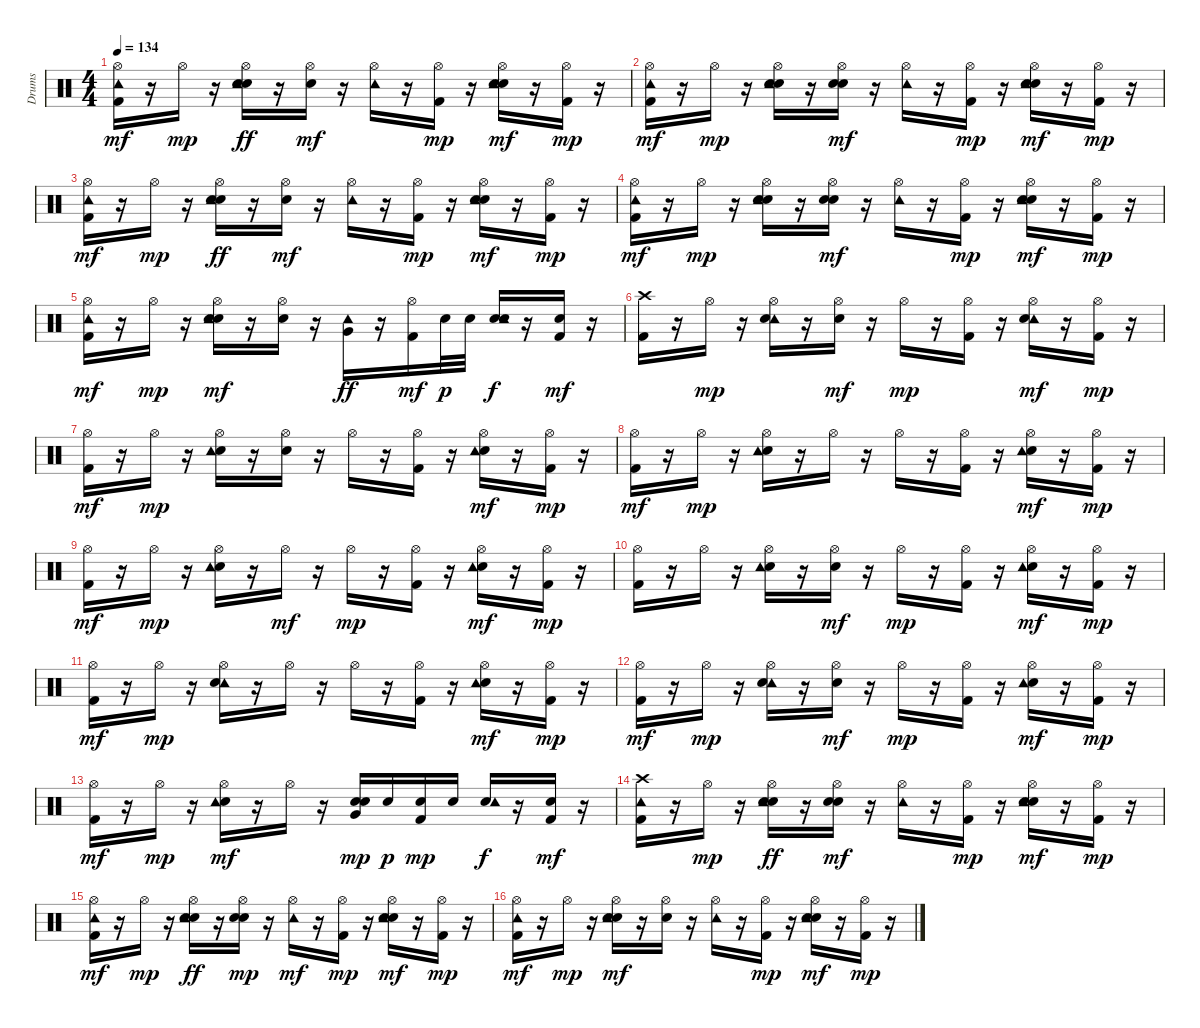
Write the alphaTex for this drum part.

\track ("Drums" "Drums") {instrument percussion}
\staff {score}
\articulation defaults
\ts (4 4)
\tempo 134
\clef neutral
\ks c
("Kick (hit) 2" "Hi-Hat (open)" "Tambourine (hit)").16{dy mf} r.16 "Hi-Hat (open)".16{dy mp} r.16 ("Hi-Hat (open)" "Snare (hit) 2" "Hand Clap (hit)" "Tambourine (hit)").16{dy ff} r.16 ("Hi-Hat (open)" "Hand Clap (hit)").16{dy mf} r.16 ("Hi-Hat (open)" "Tambourine (hit)").16 r.16 ("Kick (hit) 2" "Hi-Hat (open)").16{dy mp} r.16 ("Hi-Hat (open)" "Snare (hit) 2" "Hand Clap (hit)" "Tambourine (hit)").16{dy mf} r.16 ("Kick (hit) 2" "Hi-Hat (open)").16{dy mp} r.16 |
("Kick (hit) 2" "Hi-Hat (open)" "Tambourine (hit)").16{dy mf} r.16 "Hi-Hat (open)".16{dy mp} r.16 ("Hand Clap (hit)" "Hi-Hat (open)" "Snare (hit) 2" "Tambourine (hit)").16 r.16 ("Hi-Hat (open)" "Snare (hit) 2" "Hand Clap (hit)").16{dy mf} r.16 ("Hi-Hat (open)" "Tambourine (hit)").16 r.16 ("Kick (hit) 2" "Hi-Hat (open)").16{dy mp} r.16 ("Hi-Hat (open)" "Snare (hit) 2" "Hand Clap (hit)" "Tambourine (hit)").16{dy mf} r.16 ("Kick (hit) 2" "Hi-Hat (open)").16{dy mp} r.16 |
("Kick (hit) 2" "Hi-Hat (open)" "Tambourine (hit)").16{dy mf} r.16 "Hi-Hat (open)".16{dy mp} r.16 ("Hi-Hat (open)" "Snare (hit) 2" "Hand Clap (hit)" "Tambourine (hit)").16{dy ff} r.16 ("Hi-Hat (open)" "Hand Clap (hit)").16{dy mf} r.16 ("Hi-Hat (open)" "Tambourine (hit)").16 r.16 ("Kick (hit) 2" "Hi-Hat (open)").16{dy mp} r.16 ("Hi-Hat (open)" "Snare (hit) 2" "Hand Clap (hit)" "Tambourine (hit)").16{dy mf} r.16 ("Kick (hit) 2" "Hi-Hat (open)").16{dy mp} r.16 |
("Kick (hit) 2" "Hi-Hat (open)" "Tambourine (hit)").16{dy mf} r.16 "Hi-Hat (open)".16{dy mp} r.16 ("Hand Clap (hit)" "Tambourine (hit)" "Hi-Hat (open)" "Snare (hit) 2").16 r.16 ("Hi-Hat (open)" "Snare (hit) 2" "Hand Clap (hit)").16{dy mf} r.16 ("Hi-Hat (open)" "Tambourine (hit)").16 r.16 ("Kick (hit) 2" "Hi-Hat (open)").16{dy mp} r.16 ("Hi-Hat (open)" "Snare (hit) 2" "Hand Clap (hit)" "Tambourine (hit)").16{dy mf} r.16 ("Kick (hit) 2" "Hi-Hat (open)").16{dy mp} r.16 |
("Kick (hit) 2" "Hi-Hat (open)" "Tambourine (hit)").16{dy mf} r.16 "Hi-Hat (open)".16{dy mp} r.16 ("Snare (hit) 2" "Hand Clap (hit)" "Tambourine (hit)" "Hi-Hat (open)").16{dy mf} r.16 ("Hi-Hat (open)" "Hand Clap (hit)").16 r.16 ("Tambourine (hit)" "Very Low Tom (hit)").16{dy ff} r.16 ("Kick (hit) 2" "Hi-Hat (open)").16{dy mf} "Snare (hit) 2".32{dy p} "Snare (hit) 2".32 ("Snare (hit) 2" "Hand Clap (hit)" "Tambourine (hit)").16{dy f} r.16 ("Kick (hit) 2" "Snare (hit) 2").16{dy mf} r.16 |
("Kick (hit) 2" "Crash high (hit)").16 r.16 "Hi-Hat (open)".16{dy mp} r.16 ("Tambourine (hit)" "Hi-Hat (open)" "Snare (hit) 2").16 r.16 ("Hi-Hat (open)" "Snare (hit) 2").16{dy mf} r.16 "Hi-Hat (open)".16{dy mp} r.16 ("Kick (hit) 2" "Hi-Hat (open)").16 r.16 ("Tambourine (hit)" "Hi-Hat (open)" "Snare (hit) 2").16{dy mf} r.16 ("Kick (hit) 2" "Hi-Hat (open)").16{dy mp} r.16 |
("Kick (hit) 2" "Hi-Hat (open)").16{dy mf} r.16 "Hi-Hat (open)".16{dy mp} r.16 ("Hi-Hat (open)" "Snare (hit) 2" "Tambourine (hit)").16 r.16 ("Hi-Hat (open)" "Snare (hit) 2").16 r.16 "Hi-Hat (open)".16 r.16 ("Kick (hit) 2" "Hi-Hat (open)").16 r.16 ("Hi-Hat (open)" "Snare (hit) 2" "Tambourine (hit)").16{dy mf} r.16 ("Kick (hit) 2" "Hi-Hat (open)").16{dy mp} r.16 |
("Kick (hit) 2" "Hi-Hat (open)").16{dy mf} r.16 "Hi-Hat (open)".16{dy mp} r.16 ("Hi-Hat (open)" "Snare (hit) 2" "Tambourine (hit)").16 r.16 "Hi-Hat (open)".16 r.16 "Hi-Hat (open)".16 r.16 ("Kick (hit) 2" "Hi-Hat (open)").16 r.16 ("Hi-Hat (open)" "Snare (hit) 2" "Tambourine (hit)").16{dy mf} r.16 ("Kick (hit) 2" "Hi-Hat (open)").16{dy mp} r.16 |
("Kick (hit) 2" "Hi-Hat (open)").16{dy mf} r.16 "Hi-Hat (open)".16{dy mp} r.16 ("Hi-Hat (open)" "Snare (hit) 2" "Tambourine (hit)").16 r.16 "Hi-Hat (open)".16{dy mf} r.16 "Hi-Hat (open)".16{dy mp} r.16 ("Kick (hit) 2" "Hi-Hat (open)").16 r.16 ("Hi-Hat (open)" "Snare (hit) 2" "Tambourine (hit)").16{dy mf} r.16 ("Kick (hit) 2" "Hi-Hat (open)").16{dy mp} r.16 |
("Kick (hit) 2" "Hi-Hat (open)").16 r.16 "Hi-Hat (open)".16 r.16 ("Hi-Hat (open)" "Snare (hit) 2" "Tambourine (hit)").16 r.16 ("Hi-Hat (open)" "Snare (hit) 2").16{dy mf} r.16 "Hi-Hat (open)".16{dy mp} r.16 ("Kick (hit) 2" "Hi-Hat (open)").16 r.16 ("Hi-Hat (open)" "Snare (hit) 2" "Tambourine (hit)").16{dy mf} r.16 ("Kick (hit) 2" "Hi-Hat (open)").16{dy mp} r.16 |
("Kick (hit) 2" "Hi-Hat (open)").16{dy mf} r.16 "Hi-Hat (open)".16{dy mp} r.16 ("Tambourine (hit)" "Hi-Hat (open)" "Snare (hit) 2").16 r.16 "Hi-Hat (open)".16 r.16 "Hi-Hat (open)".16 r.16 ("Kick (hit) 2" "Hi-Hat (open)").16 r.16 ("Hi-Hat (open)" "Snare (hit) 2" "Tambourine (hit)").16{dy mf} r.16 ("Kick (hit) 2" "Hi-Hat (open)").16{dy mp} r.16 |
("Kick (hit) 2" "Hi-Hat (open)").16{dy mf} r.16 "Hi-Hat (open)".16{dy mp} r.16 ("Tambourine (hit)" "Hi-Hat (open)" "Snare (hit) 2").16 r.16 ("Hi-Hat (open)" "Snare (hit) 2").16{dy mf} r.16 "Hi-Hat (open)".16{dy mp} r.16 ("Kick (hit) 2" "Hi-Hat (open)").16 r.16 ("Hi-Hat (open)" "Snare (hit) 2" "Tambourine (hit)").16{dy mf} r.16 ("Kick (hit) 2" "Hi-Hat (open)").16{dy mp} r.16 |
("Kick (hit) 2" "Hi-Hat (open)").16{dy mf} r.16 "Hi-Hat (open)".16{dy mp} r.16 ("Snare (hit) 2" "Tambourine (hit)" "Hi-Hat (open)").16{dy mf} r.16 "Hi-Hat (open)".16 r.16 ("Snare (hit) 2" "Very Low Tom (hit)" "Snare (hit) 2").16{dy mp} "Snare (hit) 2".16{dy p} ("Kick (hit) 2" "Snare (hit) 2").16{dy mp} "Snare (hit) 2".16 ("Snare (hit) 2" "Tambourine (hit)").16{dy f} r.16 ("Kick (hit) 2" "Snare (hit) 2").16{dy mf} r.16 |
("Kick (hit) 2" "Tambourine (hit)" "Crash high (hit)").16 r.16 "Hi-Hat (open)".16{dy mp} r.16 ("Hi-Hat (open)" "Snare (hit) 2" "Hand Clap (hit)" "Tambourine (hit)").16{dy ff} r.16 ("Hi-Hat (open)" "Snare (hit) 2" "Hand Clap (hit)").16{dy mf} r.16 ("Hi-Hat (open)" "Tambourine (hit)").16 r.16 ("Kick (hit) 2" "Hi-Hat (open)").16{dy mp} r.16 ("Hi-Hat (open)" "Snare (hit) 2" "Hand Clap (hit)" "Tambourine (hit)").16{dy mf} r.16 ("Kick (hit) 2" "Hi-Hat (open)").16{dy mp} r.16 |
("Kick (hit) 2" "Hi-Hat (open)" "Tambourine (hit)").16{dy mf} r.16 "Hi-Hat (open)".16{dy mp} r.16 ("Hi-Hat (open)" "Snare (hit) 2" "Hand Clap (hit)" "Tambourine (hit)").16{dy ff} r.16 ("Snare (hit) 2" "Hand Clap (hit)" "Hi-Hat (open)").16{dy mp} r.16 ("Hi-Hat (open)" "Tambourine (hit)").16{dy mf} r.16 ("Kick (hit) 2" "Hi-Hat (open)").16{dy mp} r.16 ("Hi-Hat (open)" "Snare (hit) 2" "Hand Clap (hit)" "Tambourine (hit)").16{dy mf} r.16 ("Kick (hit) 2" "Hi-Hat (open)").16{dy mp} r.16 |
("Kick (hit) 2" "Hi-Hat (open)" "Tambourine (hit)").16{dy mf} r.16 "Hi-Hat (open)".16{dy mp} r.16 ("Snare (hit) 2" "Hand Clap (hit)" "Tambourine (hit)" "Hi-Hat (open)").16{dy mf} r.16 ("Hi-Hat (open)" "Hand Clap (hit)").16 r.16 ("Hi-Hat (open)" "Tambourine (hit)").16 r.16 ("Kick (hit) 2" "Hi-Hat (open)").16{dy mp} r.16 ("Hi-Hat (open)" "Snare (hit) 2" "Hand Clap (hit)" "Tambourine (hit)").16{dy mf} r.16 ("Kick (hit) 2" "Hi-Hat (open)").16{dy mp} r.16
